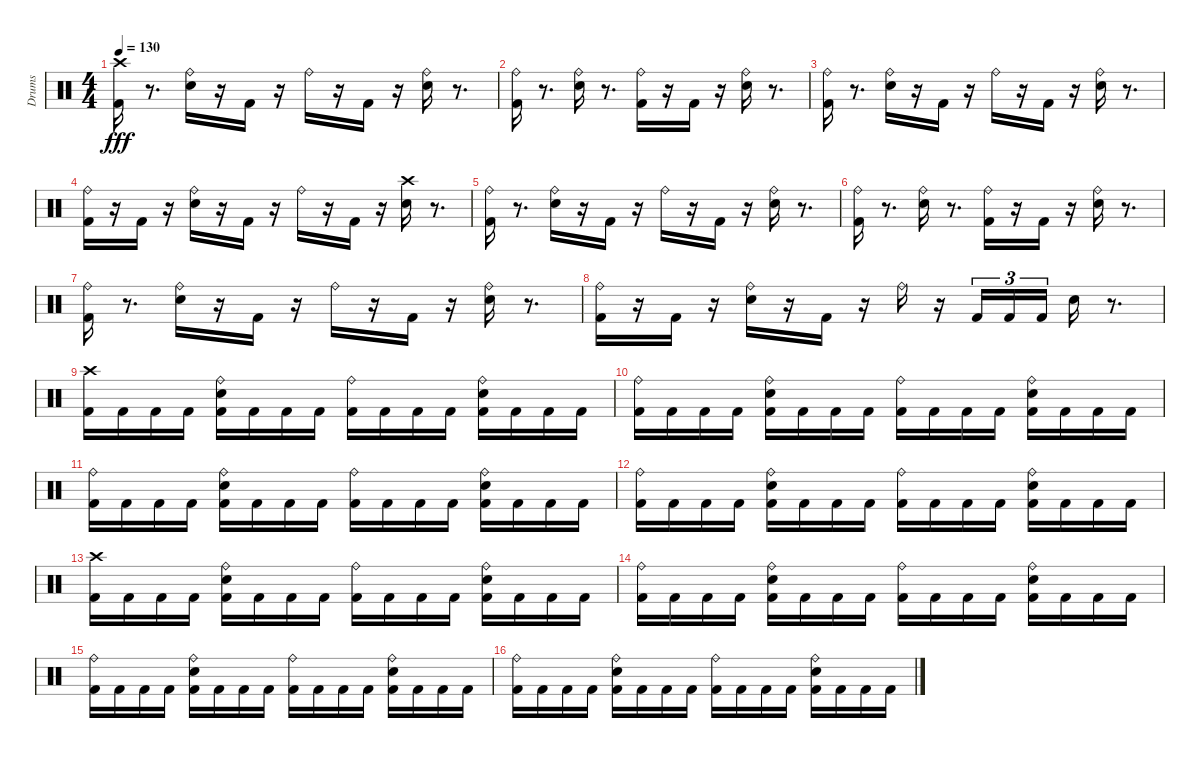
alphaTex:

\track ("Drums" "Drums") {instrument percussion}
\staff {score}
\articulation defaults
\ts (4 4)
\tempo 130
\clef neutral
\ks c
("Kick (hit) 2" "Crash high (hit)").16{dy fff} r.8{d} ("Electric Snare (hit)" "Ride (bell)").16 r.16 "Kick (hit) 2".16 r.16 "Ride (bell)".16 r.16 "Kick (hit) 2".16 r.16 ("Ride (bell)" "Electric Snare (hit)").16 r.8{d} |
("Kick (hit) 2" "Ride (bell)").16 r.8{d} ("Ride (bell)" "Electric Snare (hit)").16 r.8{d} ("Ride (bell)" "Kick (hit) 2").16 r.16 "Kick (hit) 2".16 r.16 ("Ride (bell)" "Electric Snare (hit)").16 r.8{d} |
("Kick (hit) 2" "Ride (bell)").16 r.8{d} ("Ride (bell)" "Electric Snare (hit)").16 r.16 "Kick (hit) 2".16 r.16 "Ride (bell)".16 r.16 "Kick (hit) 2".16 r.16 ("Electric Snare (hit)" "Ride (bell)").16 r.8{d} |
("Ride (bell)" "Kick (hit) 2").16 r.16 "Kick (hit) 2".16 r.16 ("Electric Snare (hit)" "Ride (bell)").16 r.16 "Kick (hit) 2".16 r.16 "Ride (bell)".16 r.16 "Kick (hit) 2".16 r.16 ("Electric Snare (hit)" "Crash high (hit)").16 r.8{d} |
("Kick (hit) 2" "Ride (bell)").16 r.8{d} ("Ride (bell)" "Electric Snare (hit)").16 r.16 "Kick (hit) 2".16 r.16 "Ride (bell)".16 r.16 "Kick (hit) 2".16 r.16 ("Electric Snare (hit)" "Ride (bell)").16 r.8{d} |
("Ride (bell)" "Kick (hit) 2").16 r.8{d} ("Electric Snare (hit)" "Ride (bell)").16 r.8{d} ("Kick (hit) 2" "Ride (bell)").16 r.16 "Kick (hit) 2".16 r.16 ("Electric Snare (hit)" "Ride (bell)").16 r.8{d} |
("Ride (bell)" "Kick (hit) 2").16 r.8{d} ("Electric Snare (hit)" "Ride (bell)").16 r.16 "Kick (hit) 2".16 r.16 "Ride (bell)".16 r.16 "Kick (hit) 2".16 r.16 ("Ride (bell)" "Electric Snare (hit)").16 r.8{d} |
("Kick (hit) 2" "Ride (bell)").16 r.16 "Kick (hit) 2".16 r.16 ("Ride (bell)" "Electric Snare (hit)").16 r.16 "Kick (hit) 2".16 r.16 "Ride (bell)".16 r.16 "Kick (hit) 2".16{tu (3 2)} "Kick (hit) 2".16{tu (3 2)} "Kick (hit) 2".16{tu (3 2)} "Electric Snare (hit)".16 r.8{d} |
("Kick (hit) 2" "Crash high (hit)").16 "Kick (hit) 2".16 "Kick (hit) 2".16 "Kick (hit) 2".16 ("Electric Snare (hit)" "Ride (bell)" "Kick (hit) 2").16 "Kick (hit) 2".16 "Kick (hit) 2".16 "Kick (hit) 2".16 ("Kick (hit) 2" "Ride (bell)").16 "Kick (hit) 2".16 "Kick (hit) 2".16 "Kick (hit) 2".16 ("Kick (hit) 2" "Ride (bell)" "Electric Snare (hit)").16 "Kick (hit) 2".16 "Kick (hit) 2".16 "Kick (hit) 2".16 |
("Kick (hit) 2" "Ride (bell)").16 "Kick (hit) 2".16 "Kick (hit) 2".16 "Kick (hit) 2".16 ("Ride (bell)" "Electric Snare (hit)" "Kick (hit) 2").16 "Kick (hit) 2".16 "Kick (hit) 2".16 "Kick (hit) 2".16 ("Ride (bell)" "Kick (hit) 2").16 "Kick (hit) 2".16 "Kick (hit) 2".16 "Kick (hit) 2".16 ("Ride (bell)" "Electric Snare (hit)" "Kick (hit) 2").16 "Kick (hit) 2".16 "Kick (hit) 2".16 "Kick (hit) 2".16 |
("Kick (hit) 2" "Ride (bell)").16 "Kick (hit) 2".16 "Kick (hit) 2".16 "Kick (hit) 2".16 ("Ride (bell)" "Electric Snare (hit)" "Kick (hit) 2").16 "Kick (hit) 2".16 "Kick (hit) 2".16 "Kick (hit) 2".16 ("Ride (bell)" "Kick (hit) 2").16 "Kick (hit) 2".16 "Kick (hit) 2".16 "Kick (hit) 2".16 ("Electric Snare (hit)" "Ride (bell)" "Kick (hit) 2").16 "Kick (hit) 2".16 "Kick (hit) 2".16 "Kick (hit) 2".16 |
("Ride (bell)" "Kick (hit) 2").16 "Kick (hit) 2".16 "Kick (hit) 2".16 "Kick (hit) 2".16 ("Electric Snare (hit)" "Ride (bell)" "Kick (hit) 2").16 "Kick (hit) 2".16 "Kick (hit) 2".16 "Kick (hit) 2".16 ("Ride (bell)" "Kick (hit) 2").16 "Kick (hit) 2".16 "Kick (hit) 2".16 "Kick (hit) 2".16 ("Electric Snare (hit)" "Kick (hit) 2" "Ride (bell)").16 "Kick (hit) 2".16 "Kick (hit) 2".16 "Kick (hit) 2".16 |
("Crash high (hit)" "Kick (hit) 2").16 "Kick (hit) 2".16 "Kick (hit) 2".16 "Kick (hit) 2".16 ("Kick (hit) 2" "Ride (bell)" "Electric Snare (hit)").16 "Kick (hit) 2".16 "Kick (hit) 2".16 "Kick (hit) 2".16 ("Ride (bell)" "Kick (hit) 2").16 "Kick (hit) 2".16 "Kick (hit) 2".16 "Kick (hit) 2".16 ("Electric Snare (hit)" "Ride (bell)" "Kick (hit) 2").16 "Kick (hit) 2".16 "Kick (hit) 2".16 "Kick (hit) 2".16 |
("Ride (bell)" "Kick (hit) 2").16 "Kick (hit) 2".16 "Kick (hit) 2".16 "Kick (hit) 2".16 ("Kick (hit) 2" "Electric Snare (hit)" "Ride (bell)").16 "Kick (hit) 2".16 "Kick (hit) 2".16 "Kick (hit) 2".16 ("Kick (hit) 2" "Ride (bell)").16 "Kick (hit) 2".16 "Kick (hit) 2".16 "Kick (hit) 2".16 ("Kick (hit) 2" "Electric Snare (hit)" "Ride (bell)").16 "Kick (hit) 2".16 "Kick (hit) 2".16 "Kick (hit) 2".16 |
("Ride (bell)" "Kick (hit) 2").16 "Kick (hit) 2".16 "Kick (hit) 2".16 "Kick (hit) 2".16 ("Kick (hit) 2" "Electric Snare (hit)" "Ride (bell)").16 "Kick (hit) 2".16 "Kick (hit) 2".16 "Kick (hit) 2".16 ("Kick (hit) 2" "Ride (bell)").16 "Kick (hit) 2".16 "Kick (hit) 2".16 "Kick (hit) 2".16 ("Kick (hit) 2" "Ride (bell)" "Electric Snare (hit)").16 "Kick (hit) 2".16 "Kick (hit) 2".16 "Kick (hit) 2".16 |
("Kick (hit) 2" "Ride (bell)").16 "Kick (hit) 2".16 "Kick (hit) 2".16 "Kick (hit) 2".16 ("Kick (hit) 2" "Ride (bell)" "Electric Snare (hit)").16 "Kick (hit) 2".16 "Kick (hit) 2".16 "Kick (hit) 2".16 ("Kick (hit) 2" "Ride (bell)").16 "Kick (hit) 2".16 "Kick (hit) 2".16 "Kick (hit) 2".16 ("Kick (hit) 2" "Electric Snare (hit)" "Ride (bell)").16 "Kick (hit) 2".16 "Kick (hit) 2".16 "Kick (hit) 2".16
